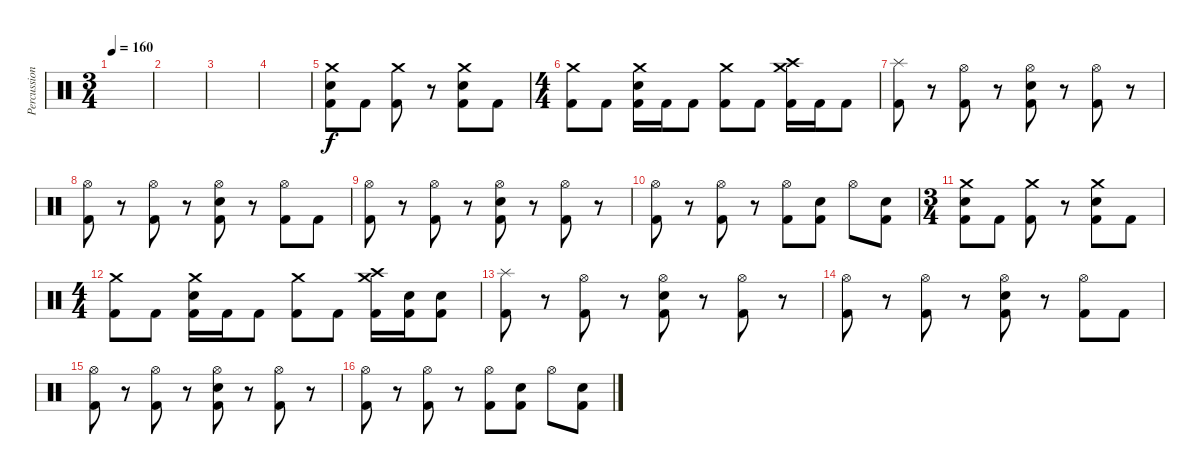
\track ("Percussion" "Percussion") {instrument percussion}
\staff {score}
\articulation defaults
\ts (3 4)
\tempo 160
\clef neutral
\ks c
|
|
|
|
("Crash medium (hit)" "Electric Snare (hit)" "Kick (hit) 2").8 "Kick (hit) 2".8 ("Crash medium (hit)" "Kick (hit) 2").8 r.8 ("Crash medium (hit)" "Electric Snare (hit)" "Kick (hit) 2").8 "Kick (hit) 2".8 |
\ts (4 4)
("Crash medium (hit)" "Kick (hit) 2").8 "Kick (hit) 2".8 ("Crash medium (hit)" "Electric Snare (hit)" "Kick (hit) 2").16 "Kick (hit) 2".16 "Kick (hit) 2".8 ("Crash medium (hit)" "Kick (hit) 2").8 "Kick (hit) 2".8 ("Crash medium (hit)" "Crash high (hit)" "Kick (hit) 2").16 "Kick (hit) 2".16 "Kick (hit) 2".8 |
("Splash (hit)" "Kick (hit) 2").8 r.8 ("Hi-Hat (open)" "Kick (hit) 2").8 r.8 ("Hi-Hat (open)" "Electric Snare (hit)" "Kick (hit) 2").8 r.8 ("Hi-Hat (open)" "Kick (hit) 2").8 r.8 |
("Hi-Hat (open)" "Kick (hit) 2").8 r.8 ("Hi-Hat (open)" "Kick (hit) 2").8 r.8 ("Hi-Hat (open)" "Electric Snare (hit)" "Kick (hit) 2").8 r.8 ("Hi-Hat (open)" "Kick (hit) 2").8 "Kick (hit) 2".8 |
("Hi-Hat (open)" "Kick (hit) 2").8 r.8 ("Hi-Hat (open)" "Kick (hit) 2").8 r.8 ("Hi-Hat (open)" "Electric Snare (hit)" "Kick (hit) 2").8 r.8 ("Hi-Hat (open)" "Kick (hit) 2").8 r.8 |
("Hi-Hat (open)" "Kick (hit) 2").8 r.8 ("Hi-Hat (open)" "Kick (hit) 2").8 r.8 ("Hi-Hat (open)" "Kick (hit) 2").8 ("Electric Snare (hit)" "Kick (hit) 2").8 "Hi-Hat (open)".8 ("Electric Snare (hit)" "Kick (hit) 2").8 |
\ts (3 4)
("Crash medium (hit)" "Electric Snare (hit)" "Kick (hit) 2").8 "Kick (hit) 2".8 ("Crash medium (hit)" "Kick (hit) 2").8 r.8 ("Crash medium (hit)" "Electric Snare (hit)" "Kick (hit) 2").8 "Kick (hit) 2".8 |
\ts (4 4)
("Crash medium (hit)" "Kick (hit) 2").8 "Kick (hit) 2".8 ("Crash medium (hit)" "Electric Snare (hit)" "Kick (hit) 2").16 "Kick (hit) 2".16 "Kick (hit) 2".8 ("Crash medium (hit)" "Kick (hit) 2").8 "Kick (hit) 2".8 ("Crash medium (hit)" "Crash high (hit)" "Kick (hit) 2").16 ("Electric Snare (hit)" "Kick (hit) 2").16 ("Electric Snare (hit)" "Kick (hit) 2").8 |
("Splash (hit)" "Kick (hit) 2").8 r.8 ("Hi-Hat (open)" "Kick (hit) 2").8 r.8 ("Hi-Hat (open)" "Electric Snare (hit)" "Kick (hit) 2").8 r.8 ("Hi-Hat (open)" "Kick (hit) 2").8 r.8 |
("Hi-Hat (open)" "Kick (hit) 2").8 r.8 ("Hi-Hat (open)" "Kick (hit) 2").8 r.8 ("Hi-Hat (open)" "Electric Snare (hit)" "Kick (hit) 2").8 r.8 ("Hi-Hat (open)" "Kick (hit) 2").8 "Kick (hit) 2".8 |
("Hi-Hat (open)" "Kick (hit) 2").8 r.8 ("Hi-Hat (open)" "Kick (hit) 2").8 r.8 ("Hi-Hat (open)" "Electric Snare (hit)" "Kick (hit) 2").8 r.8 ("Hi-Hat (open)" "Kick (hit) 2").8 r.8 |
("Hi-Hat (open)" "Kick (hit) 2").8 r.8 ("Hi-Hat (open)" "Kick (hit) 2").8 r.8 ("Hi-Hat (open)" "Kick (hit) 2").8 ("Electric Snare (hit)" "Kick (hit) 2").8 "Hi-Hat (open)".8 ("Electric Snare (hit)" "Kick (hit) 2").8
